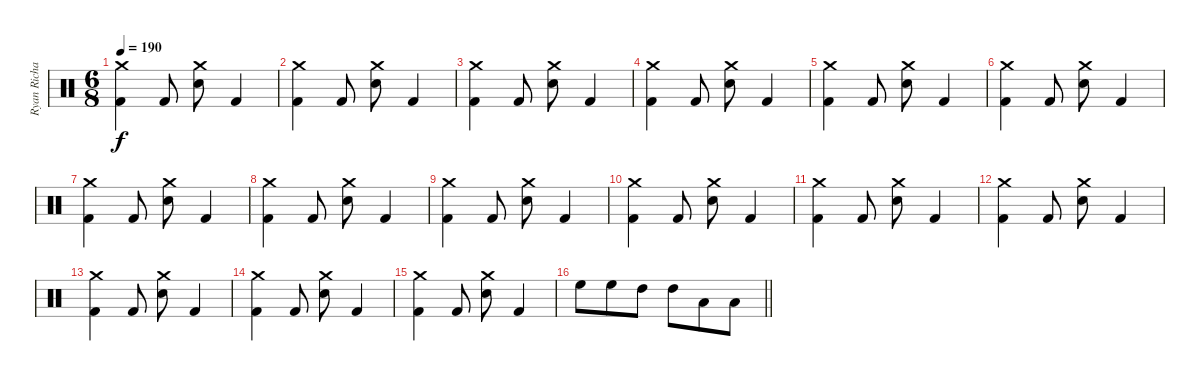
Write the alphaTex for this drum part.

\track ("Ryan Richards" "Ryan Richa") {instrument percussion bank 127}
\staff {score}
\articulation defaults
\ts (6 8)
\tempo 190
\clef neutral
\ks c
("Crash medium (hit)" "Kick (hit) 2").4{dy f} "Kick (hit) 2".8 ("Crash medium (hit)" "Snare (hit) 2").8 "Kick (hit) 2".4 |
("Crash medium (hit)" "Kick (hit) 2").4 "Kick (hit) 2".8 ("Crash medium (hit)" "Snare (hit) 2").8 "Kick (hit) 2".4 |
("Crash medium (hit)" "Kick (hit) 2").4 "Kick (hit) 2".8 ("Crash medium (hit)" "Snare (hit) 2").8 "Kick (hit) 2".4 |
("Crash medium (hit)" "Kick (hit) 2").4 "Kick (hit) 2".8 ("Crash medium (hit)" "Snare (hit) 2").8 "Kick (hit) 2".4 |
("Crash medium (hit)" "Kick (hit) 2").4 "Kick (hit) 2".8 ("Crash medium (hit)" "Snare (hit) 2").8 "Kick (hit) 2".4 |
("Crash medium (hit)" "Kick (hit) 2").4 "Kick (hit) 2".8 ("Crash medium (hit)" "Snare (hit) 2").8 "Kick (hit) 2".4 |
("Crash medium (hit)" "Kick (hit) 2").4 "Kick (hit) 2".8 ("Crash medium (hit)" "Snare (hit) 2").8 "Kick (hit) 2".4 |
("Crash medium (hit)" "Kick (hit) 2").4 "Kick (hit) 2".8 ("Crash medium (hit)" "Snare (hit) 2").8 "Kick (hit) 2".4 |
("Crash medium (hit)" "Kick (hit) 2").4 "Kick (hit) 2".8 ("Crash medium (hit)" "Snare (hit) 2").8 "Kick (hit) 2".4 |
("Crash medium (hit)" "Kick (hit) 2").4 "Kick (hit) 2".8 ("Crash medium (hit)" "Snare (hit) 2").8 "Kick (hit) 2".4 |
("Crash medium (hit)" "Kick (hit) 2").4 "Kick (hit) 2".8 ("Crash medium (hit)" "Snare (hit) 2").8 "Kick (hit) 2".4 |
("Crash medium (hit)" "Kick (hit) 2").4 "Kick (hit) 2".8 ("Crash medium (hit)" "Snare (hit) 2").8 "Kick (hit) 2".4 |
("Crash medium (hit)" "Kick (hit) 2").4 "Kick (hit) 2".8 ("Crash medium (hit)" "Snare (hit) 2").8 "Kick (hit) 2".4 |
("Crash medium (hit)" "Kick (hit) 2").4 "Kick (hit) 2".8 ("Crash medium (hit)" "Snare (hit) 2").8 "Kick (hit) 2".4 |
("Crash medium (hit)" "Kick (hit) 2").4 "Kick (hit) 2".8 ("Crash medium (hit)" "Snare (hit) 2").8 "Kick (hit) 2".4 |
\barLineRight lightlight "High Floor Tom (hit)".8 "High Floor Tom (hit)".8 "High Tom (hit)".8 "High Tom (hit)".8 "Low Tom (hit)".8 "Low Tom (hit)".8
